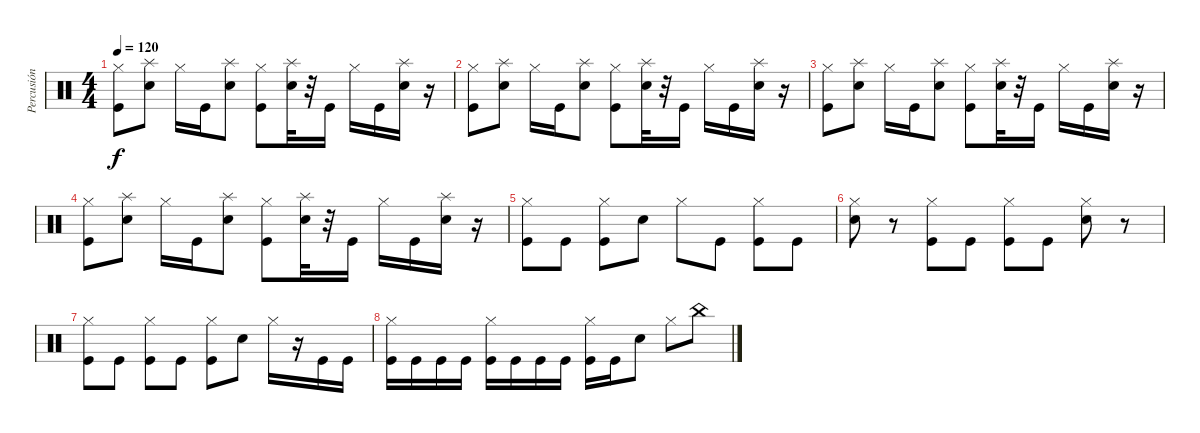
\track ("Percusión" "Percusión") {instrument percussion}
\staff {score}
\articulation defaults
\ts (4 4)
\tempo 120
\clef neutral
\ks c
("Hi-Hat (closed)" "Kick (hit)").8{dy f} ("Splash (hit)" "Snare (hit) 2").8 "Hi-Hat (closed)".16 "Kick (hit)".16 ("Splash (hit)" "Snare (hit) 2").8 ("Hi-Hat (closed)" "Kick (hit)").8 ("Splash (hit)" "Snare (hit) 2").32 r.32 "Kick (hit)".16 "Hi-Hat (closed)".16 "Kick (hit)".16 ("Splash (hit)" "Snare (hit) 2").16 r.16 |
("Hi-Hat (closed)" "Kick (hit)").8 ("Splash (hit)" "Snare (hit) 2").8 "Hi-Hat (closed)".16 "Kick (hit)".16 ("Splash (hit)" "Snare (hit) 2").8 ("Hi-Hat (closed)" "Kick (hit)").8 ("Splash (hit)" "Snare (hit) 2").32 r.32 "Kick (hit)".16 "Hi-Hat (closed)".16 "Kick (hit)".16 ("Splash (hit)" "Snare (hit) 2").16 r.16 |
("Hi-Hat (closed)" "Kick (hit)").8 ("Splash (hit)" "Snare (hit) 2").8 "Hi-Hat (closed)".16 "Kick (hit)".16 ("Splash (hit)" "Snare (hit) 2").8 ("Hi-Hat (closed)" "Kick (hit)").8 ("Splash (hit)" "Snare (hit) 2").32 r.32 "Kick (hit)".16 "Hi-Hat (closed)".16 "Kick (hit)".16 ("Splash (hit)" "Snare (hit) 2").16 r.16 |
("Hi-Hat (closed)" "Kick (hit)").8 ("Splash (hit)" "Snare (hit) 2").8 "Hi-Hat (closed)".16 "Kick (hit)".16 ("Splash (hit)" "Snare (hit) 2").8 ("Hi-Hat (closed)" "Kick (hit)").8 ("Splash (hit)" "Snare (hit) 2").32 r.32 "Kick (hit)".16 "Hi-Hat (closed)".16 "Kick (hit)".16 ("Splash (hit)" "Snare (hit) 2").16 r.16 |
("Hi-Hat (closed)" "Kick (hit)").8 "Kick (hit)".8 ("Hi-Hat (closed)" "Kick (hit)").8 "Snare (hit) 2".8 "Hi-Hat (closed)".8 "Kick (hit)".8 ("Hi-Hat (closed)" "Kick (hit)").8 "Kick (hit)".8 |
("Hi-Hat (closed)" "Snare (hit) 2").8 r.8 ("Hi-Hat (closed)" "Kick (hit)").8 "Kick (hit)".8 ("Hi-Hat (closed)" "Kick (hit)").8 "Kick (hit)".8 ("Hi-Hat (closed)" "Snare (hit) 2").8 r.8 |
("Hi-Hat (closed)" "Kick (hit)").8 "Kick (hit)".8 ("Hi-Hat (closed)" "Kick (hit)").8 "Kick (hit)".8 ("Hi-Hat (closed)" "Kick (hit)").8 "Snare (hit) 2".8 "Hi-Hat (closed)".16 r.16 "Kick (hit)".16 "Kick (hit)".16 |
("Hi-Hat (closed)" "Kick (hit)").16 "Kick (hit)".16 "Kick (hit)".16 "Kick (hit)".16 ("Hi-Hat (closed)" "Kick (hit)").16 "Kick (hit)".16 "Kick (hit)".16 "Kick (hit)".16 ("Hi-Hat (closed)" "Kick (hit)").16 "Kick (hit)".16 "Snare (hit) 2".8 "Hi-Hat (closed)".8 "China (hit)".8
